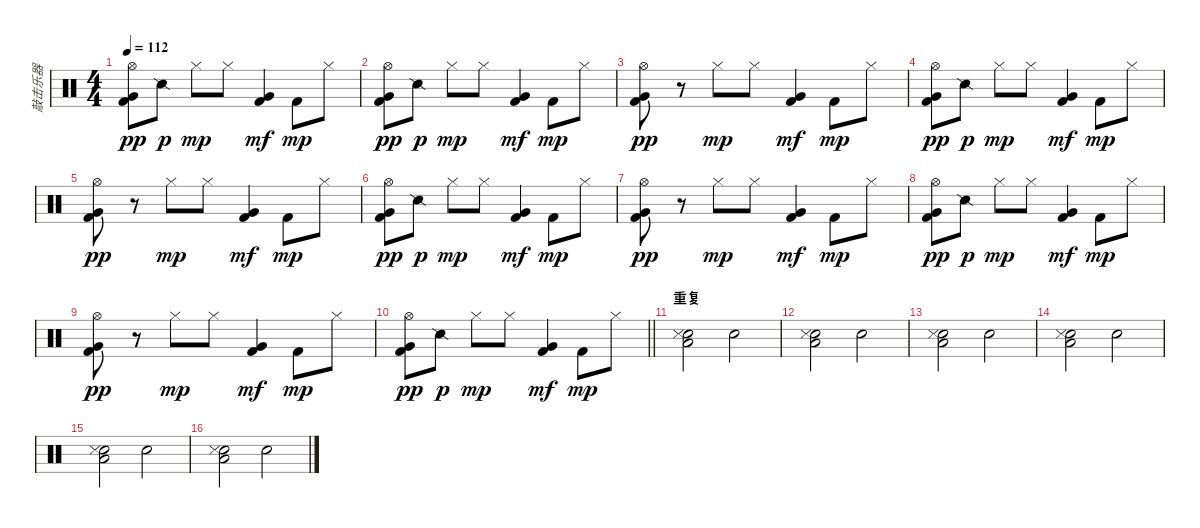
\track ("敲击乐器" "敲击乐器") {instrument percussion}
\staff {score}
\articulation defaults
\ts (4 4)
\tempo 112
\clef neutral
\ks c
("Very Low Tom (hit)" "Kick (hit) 2" "Hi-Hat (open)").8{dy pp} "Snare (side stick) 2".8{dy p} "Hi-Hat (closed)".8{dy mp} "Hi-Hat (closed)".8 ("Very Low Tom (hit)" "Kick (hit) 2").4{dy mf} "Kick (hit) 2".8{dy mp} "Hi-Hat (closed)".8 |
("Very Low Tom (hit)" "Kick (hit) 2" "Hi-Hat (open)").8{dy pp} "Snare (side stick) 2".8{dy p} "Hi-Hat (closed)".8{dy mp} "Hi-Hat (closed)".8 ("Very Low Tom (hit)" "Kick (hit) 2").4{dy mf} "Kick (hit) 2".8{dy mp} "Hi-Hat (closed)".8 |
("Very Low Tom (hit)" "Kick (hit) 2" "Hi-Hat (open)").8{dy pp} r.8 "Hi-Hat (closed)".8{dy mp} "Hi-Hat (closed)".8 ("Very Low Tom (hit)" "Kick (hit) 2").4{dy mf} "Kick (hit) 2".8{dy mp} "Hi-Hat (closed)".8 |
("Very Low Tom (hit)" "Kick (hit) 2" "Hi-Hat (open)").8{dy pp} "Snare (side stick) 2".8{dy p} "Hi-Hat (closed)".8{dy mp} "Hi-Hat (closed)".8 ("Very Low Tom (hit)" "Kick (hit) 2").4{dy mf} "Kick (hit) 2".8{dy mp} "Hi-Hat (closed)".8 |
("Very Low Tom (hit)" "Kick (hit) 2" "Hi-Hat (open)").8{dy pp} r.8 "Hi-Hat (closed)".8{dy mp} "Hi-Hat (closed)".8 ("Very Low Tom (hit)" "Kick (hit) 2").4{dy mf} "Kick (hit) 2".8{dy mp} "Hi-Hat (closed)".8 |
("Very Low Tom (hit)" "Kick (hit) 2" "Hi-Hat (open)").8{dy pp} "Snare (side stick) 2".8{dy p} "Hi-Hat (closed)".8{dy mp} "Hi-Hat (closed)".8 ("Very Low Tom (hit)" "Kick (hit) 2").4{dy mf} "Kick (hit) 2".8{dy mp} "Hi-Hat (closed)".8 |
("Very Low Tom (hit)" "Kick (hit) 2" "Hi-Hat (open)").8{dy pp} r.8 "Hi-Hat (closed)".8{dy mp} "Hi-Hat (closed)".8 ("Very Low Tom (hit)" "Kick (hit) 2").4{dy mf} "Kick (hit) 2".8{dy mp} "Hi-Hat (closed)".8 |
("Very Low Tom (hit)" "Kick (hit) 2" "Hi-Hat (open)").8{dy pp} "Snare (side stick) 2".8{dy p} "Hi-Hat (closed)".8{dy mp} "Hi-Hat (closed)".8 ("Very Low Tom (hit)" "Kick (hit) 2").4{dy mf} "Kick (hit) 2".8{dy mp} "Hi-Hat (closed)".8 |
("Very Low Tom (hit)" "Kick (hit) 2" "Hi-Hat (open)").8{dy pp} r.8 "Hi-Hat (closed)".8{dy mp} "Hi-Hat (closed)".8 ("Very Low Tom (hit)" "Kick (hit) 2").4{dy mf} "Kick (hit) 2".8{dy mp} "Hi-Hat (closed)".8 |
\barLineRight lightlight
("Very Low Tom (hit)" "Kick (hit) 2" "Hi-Hat (open)").8{dy pp} "Snare (side stick) 2".8{dy p} "Hi-Hat (closed)".8{dy mp} "Hi-Hat (closed)".8 ("Very Low Tom (hit)" "Kick (hit) 2").4{dy mf} "Kick (hit) 2".8{dy mp} "Hi-Hat (closed)".8 |
\section ("" "重复")
("Snare (hit) 2" "Snare (side stick) 3" "Low Floor Tom (hit)").2 "Electric Snare (hit)".2 |
("Snare (hit) 2" "Snare (side stick) 3" "Low Floor Tom (hit)").2 "Electric Snare (hit)".2 |
("Snare (hit) 2" "Snare (side stick) 3" "Low Floor Tom (hit)").2 "Electric Snare (hit)".2 |
("Snare (hit) 2" "Snare (side stick) 3" "Low Floor Tom (hit)").2 "Electric Snare (hit)".2 |
("Snare (hit) 2" "Snare (side stick) 3" "Low Floor Tom (hit)").2 "Electric Snare (hit)".2 |
("Snare (hit) 2" "Snare (side stick) 3" "Low Floor Tom (hit)").2 "Electric Snare (hit)".2
